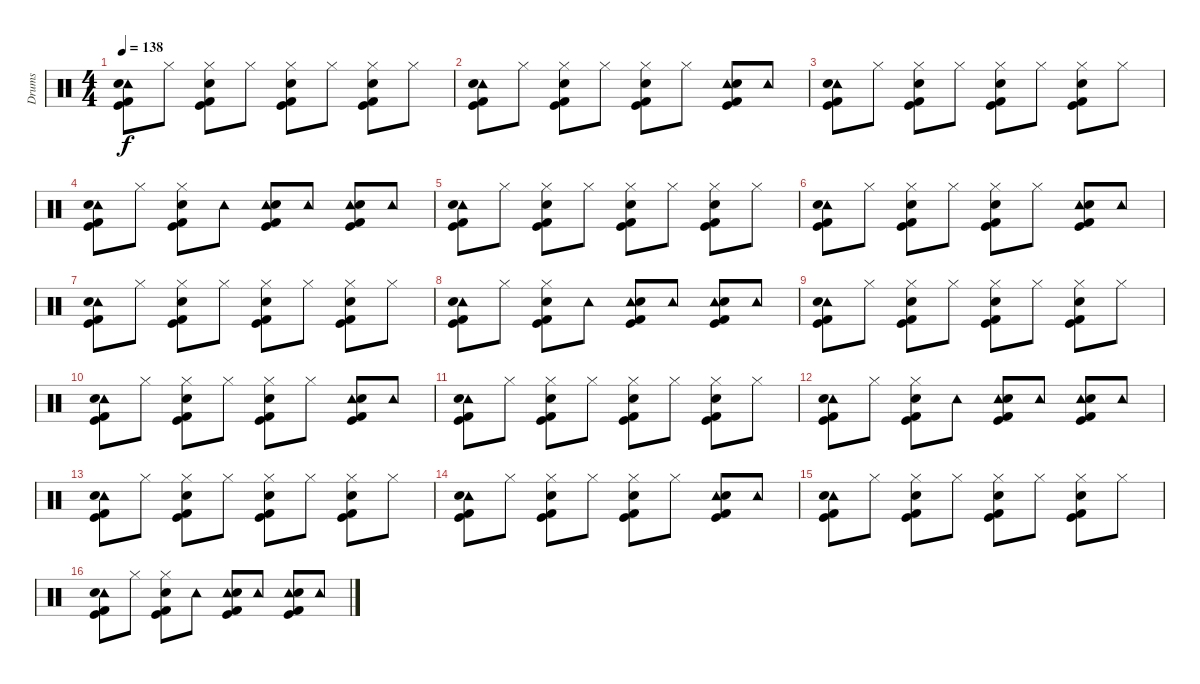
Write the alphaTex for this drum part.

\track ("Drums" "Drums") {instrument percussion}
\staff {score}
\articulation defaults
\ts (4 4)
\tempo 138
\clef neutral
\ks c
("Tambourine (hit)" "Electric Snare (hit)" "Kick (hit) 2" "Kick (hit)").8{dy f} "Hi-Hat (closed)".8 ("Hi-Hat (closed)" "Electric Snare (hit)" "Kick (hit) 2" "Kick (hit)").8 "Hi-Hat (closed)".8 ("Hi-Hat (closed)" "Electric Snare (hit)" "Kick (hit) 2" "Kick (hit)").8 "Hi-Hat (closed)".8 ("Hi-Hat (closed)" "Electric Snare (hit)" "Kick (hit) 2" "Kick (hit)").8 "Hi-Hat (closed)".8 |
("Tambourine (hit)" "Electric Snare (hit)" "Kick (hit) 2" "Kick (hit)").8 "Hi-Hat (closed)".8 ("Hi-Hat (closed)" "Electric Snare (hit)" "Kick (hit) 2" "Kick (hit)").8 "Hi-Hat (closed)".8 ("Hi-Hat (closed)" "Electric Snare (hit)" "Kick (hit) 2" "Kick (hit)").8 "Hi-Hat (closed)".8 ("Tambourine (hit)" "Electric Snare (hit)" "Kick (hit) 2" "Kick (hit)").8 "Tambourine (hit)".8 |
("Tambourine (hit)" "Electric Snare (hit)" "Kick (hit) 2" "Kick (hit)").8 "Hi-Hat (closed)".8 ("Hi-Hat (closed)" "Electric Snare (hit)" "Kick (hit) 2" "Kick (hit)").8 "Hi-Hat (closed)".8 ("Hi-Hat (closed)" "Electric Snare (hit)" "Kick (hit) 2" "Kick (hit)").8 "Hi-Hat (closed)".8 ("Hi-Hat (closed)" "Electric Snare (hit)" "Kick (hit) 2" "Kick (hit)").8 "Hi-Hat (closed)".8 |
("Tambourine (hit)" "Electric Snare (hit)" "Kick (hit) 2" "Kick (hit)").8 "Hi-Hat (closed)".8 ("Hi-Hat (closed)" "Electric Snare (hit)" "Kick (hit) 2" "Kick (hit)").8 "Tambourine (hit)".8 ("Tambourine (hit)" "Electric Snare (hit)" "Kick (hit) 2" "Kick (hit)").8 "Tambourine (hit)".8 ("Tambourine (hit)" "Electric Snare (hit)" "Kick (hit) 2" "Kick (hit)").8 "Tambourine (hit)".8 |
("Tambourine (hit)" "Electric Snare (hit)" "Kick (hit) 2" "Kick (hit)").8 "Hi-Hat (closed)".8 ("Hi-Hat (closed)" "Electric Snare (hit)" "Kick (hit) 2" "Kick (hit)").8 "Hi-Hat (closed)".8 ("Hi-Hat (closed)" "Electric Snare (hit)" "Kick (hit) 2" "Kick (hit)").8 "Hi-Hat (closed)".8 ("Hi-Hat (closed)" "Electric Snare (hit)" "Kick (hit) 2" "Kick (hit)").8 "Hi-Hat (closed)".8 |
("Tambourine (hit)" "Electric Snare (hit)" "Kick (hit) 2" "Kick (hit)").8 "Hi-Hat (closed)".8 ("Hi-Hat (closed)" "Electric Snare (hit)" "Kick (hit) 2" "Kick (hit)").8 "Hi-Hat (closed)".8 ("Hi-Hat (closed)" "Electric Snare (hit)" "Kick (hit) 2" "Kick (hit)").8 "Hi-Hat (closed)".8 ("Tambourine (hit)" "Electric Snare (hit)" "Kick (hit) 2" "Kick (hit)").8 "Tambourine (hit)".8 |
("Tambourine (hit)" "Electric Snare (hit)" "Kick (hit) 2" "Kick (hit)").8 "Hi-Hat (closed)".8 ("Hi-Hat (closed)" "Electric Snare (hit)" "Kick (hit) 2" "Kick (hit)").8 "Hi-Hat (closed)".8 ("Hi-Hat (closed)" "Electric Snare (hit)" "Kick (hit) 2" "Kick (hit)").8 "Hi-Hat (closed)".8 ("Hi-Hat (closed)" "Electric Snare (hit)" "Kick (hit) 2" "Kick (hit)").8 "Hi-Hat (closed)".8 |
("Tambourine (hit)" "Electric Snare (hit)" "Kick (hit) 2" "Kick (hit)").8 "Hi-Hat (closed)".8 ("Hi-Hat (closed)" "Electric Snare (hit)" "Kick (hit) 2" "Kick (hit)").8 "Tambourine (hit)".8 ("Tambourine (hit)" "Electric Snare (hit)" "Kick (hit) 2" "Kick (hit)").8 "Tambourine (hit)".8 ("Tambourine (hit)" "Electric Snare (hit)" "Kick (hit) 2" "Kick (hit)").8 "Tambourine (hit)".8 |
("Tambourine (hit)" "Electric Snare (hit)" "Kick (hit) 2" "Kick (hit)").8 "Hi-Hat (closed)".8 ("Hi-Hat (closed)" "Electric Snare (hit)" "Kick (hit) 2" "Kick (hit)").8 "Hi-Hat (closed)".8 ("Hi-Hat (closed)" "Electric Snare (hit)" "Kick (hit) 2" "Kick (hit)").8 "Hi-Hat (closed)".8 ("Hi-Hat (closed)" "Electric Snare (hit)" "Kick (hit) 2" "Kick (hit)").8 "Hi-Hat (closed)".8 |
("Tambourine (hit)" "Electric Snare (hit)" "Kick (hit) 2" "Kick (hit)").8 "Hi-Hat (closed)".8 ("Hi-Hat (closed)" "Electric Snare (hit)" "Kick (hit) 2" "Kick (hit)").8 "Hi-Hat (closed)".8 ("Hi-Hat (closed)" "Electric Snare (hit)" "Kick (hit) 2" "Kick (hit)").8 "Hi-Hat (closed)".8 ("Tambourine (hit)" "Electric Snare (hit)" "Kick (hit) 2" "Kick (hit)").8 "Tambourine (hit)".8 |
("Tambourine (hit)" "Electric Snare (hit)" "Kick (hit) 2" "Kick (hit)").8 "Hi-Hat (closed)".8 ("Hi-Hat (closed)" "Electric Snare (hit)" "Kick (hit) 2" "Kick (hit)").8 "Hi-Hat (closed)".8 ("Hi-Hat (closed)" "Electric Snare (hit)" "Kick (hit) 2" "Kick (hit)").8 "Hi-Hat (closed)".8 ("Hi-Hat (closed)" "Electric Snare (hit)" "Kick (hit) 2" "Kick (hit)").8 "Hi-Hat (closed)".8 |
("Tambourine (hit)" "Electric Snare (hit)" "Kick (hit) 2" "Kick (hit)").8 "Hi-Hat (closed)".8 ("Hi-Hat (closed)" "Electric Snare (hit)" "Kick (hit) 2" "Kick (hit)").8 "Tambourine (hit)".8 ("Tambourine (hit)" "Electric Snare (hit)" "Kick (hit) 2" "Kick (hit)").8 "Tambourine (hit)".8 ("Tambourine (hit)" "Electric Snare (hit)" "Kick (hit) 2" "Kick (hit)").8 "Tambourine (hit)".8 |
("Tambourine (hit)" "Electric Snare (hit)" "Kick (hit) 2" "Kick (hit)").8 "Hi-Hat (closed)".8 ("Hi-Hat (closed)" "Electric Snare (hit)" "Kick (hit) 2" "Kick (hit)").8 "Hi-Hat (closed)".8 ("Hi-Hat (closed)" "Electric Snare (hit)" "Kick (hit) 2" "Kick (hit)").8 "Hi-Hat (closed)".8 ("Hi-Hat (closed)" "Electric Snare (hit)" "Kick (hit) 2" "Kick (hit)").8 "Hi-Hat (closed)".8 |
("Tambourine (hit)" "Electric Snare (hit)" "Kick (hit) 2" "Kick (hit)").8 "Hi-Hat (closed)".8 ("Hi-Hat (closed)" "Electric Snare (hit)" "Kick (hit) 2" "Kick (hit)").8 "Hi-Hat (closed)".8 ("Hi-Hat (closed)" "Electric Snare (hit)" "Kick (hit) 2" "Kick (hit)").8 "Hi-Hat (closed)".8 ("Tambourine (hit)" "Electric Snare (hit)" "Kick (hit) 2" "Kick (hit)").8 "Tambourine (hit)".8 |
("Tambourine (hit)" "Electric Snare (hit)" "Kick (hit) 2" "Kick (hit)").8 "Hi-Hat (closed)".8 ("Hi-Hat (closed)" "Electric Snare (hit)" "Kick (hit) 2" "Kick (hit)").8 "Hi-Hat (closed)".8 ("Hi-Hat (closed)" "Electric Snare (hit)" "Kick (hit) 2" "Kick (hit)").8 "Hi-Hat (closed)".8 ("Hi-Hat (closed)" "Electric Snare (hit)" "Kick (hit) 2" "Kick (hit)").8 "Hi-Hat (closed)".8 |
("Tambourine (hit)" "Electric Snare (hit)" "Kick (hit) 2" "Kick (hit)").8 "Hi-Hat (closed)".8 ("Hi-Hat (closed)" "Electric Snare (hit)" "Kick (hit) 2" "Kick (hit)").8 "Tambourine (hit)".8 ("Tambourine (hit)" "Electric Snare (hit)" "Kick (hit) 2" "Kick (hit)").8 "Tambourine (hit)".8 ("Tambourine (hit)" "Electric Snare (hit)" "Kick (hit) 2" "Kick (hit)").8 "Tambourine (hit)".8
